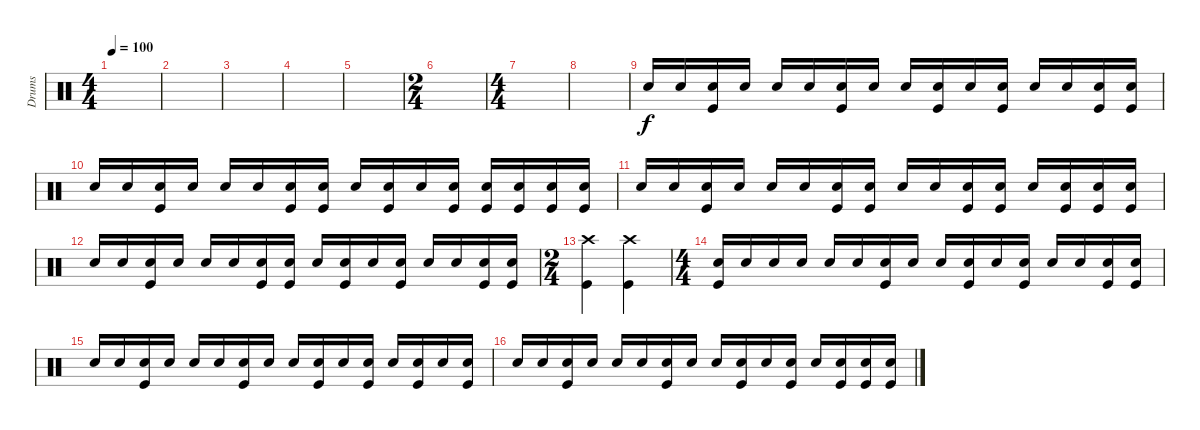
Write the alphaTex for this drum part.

\track ("Drums" "Drums") {instrument percussion}
\staff {score}
\articulation defaults
\ts (4 4)
\tempo 100
\clef neutral
\ks c
|
|
|
|
|
\ts (2 4)
|
\ts (4 4)
|
|
"Snare (hit) 2".16 "Snare (hit) 2".16 ("Snare (hit) 2" "Kick (hit)").16 "Snare (hit) 2".16 "Snare (hit) 2".16 "Snare (hit) 2".16 ("Snare (hit) 2" "Kick (hit)").16 "Snare (hit) 2".16 "Snare (hit) 2".16 ("Snare (hit) 2" "Kick (hit)").16 "Snare (hit) 2".16 ("Snare (hit) 2" "Kick (hit)").16 "Snare (hit) 2".16 "Snare (hit) 2".16 ("Snare (hit) 2" "Kick (hit)").16 ("Snare (hit) 2" "Kick (hit)").16 |
"Snare (hit) 2".16 "Snare (hit) 2".16 ("Snare (hit) 2" "Kick (hit)").16 "Snare (hit) 2".16 "Snare (hit) 2".16 "Snare (hit) 2".16 ("Snare (hit) 2" "Kick (hit)").16 ("Snare (hit) 2" "Kick (hit)").16 "Snare (hit) 2".16 ("Snare (hit) 2" "Kick (hit)").16 "Snare (hit) 2".16 ("Snare (hit) 2" "Kick (hit)").16 ("Snare (hit) 2" "Kick (hit)").16 ("Snare (hit) 2" "Kick (hit)").16 ("Snare (hit) 2" "Kick (hit)").16 ("Snare (hit) 2" "Kick (hit)").16 |
"Snare (hit) 2".16 "Snare (hit) 2".16 ("Snare (hit) 2" "Kick (hit)").16 "Snare (hit) 2".16 "Snare (hit) 2".16 "Snare (hit) 2".16 ("Snare (hit) 2" "Kick (hit)").16 ("Snare (hit) 2" "Kick (hit)").16 "Snare (hit) 2".16 "Snare (hit) 2".16 ("Snare (hit) 2" "Kick (hit)").16 ("Snare (hit) 2" "Kick (hit)").16 "Snare (hit) 2".16 ("Snare (hit) 2" "Kick (hit)").16 ("Snare (hit) 2" "Kick (hit)").16 ("Snare (hit) 2" "Kick (hit)").16 |
"Snare (hit) 2".16 "Snare (hit) 2".16 ("Snare (hit) 2" "Kick (hit)").16 "Snare (hit) 2".16 "Snare (hit) 2".16 "Snare (hit) 2".16 ("Snare (hit) 2" "Kick (hit)").16 ("Snare (hit) 2" "Kick (hit)").16 "Snare (hit) 2".16 ("Snare (hit) 2" "Kick (hit)").16 "Snare (hit) 2".16 ("Snare (hit) 2" "Kick (hit)").16 "Snare (hit) 2".16 "Snare (hit) 2".16 ("Snare (hit) 2" "Kick (hit)").16 ("Snare (hit) 2" "Kick (hit)").16 |
\ts (2 4)
("Crash high (hit)" "Kick (hit)").4 ("Crash high (hit)" "Kick (hit)").4 |
\ts (4 4)
("Snare (hit) 2" "Kick (hit)").16 "Snare (hit) 2".16 "Snare (hit) 2".16 "Snare (hit) 2".16 "Snare (hit) 2".16 "Snare (hit) 2".16 ("Snare (hit) 2" "Kick (hit)").16 "Snare (hit) 2".16 "Snare (hit) 2".16 ("Snare (hit) 2" "Kick (hit)").16 "Snare (hit) 2".16 ("Snare (hit) 2" "Kick (hit)").16 "Snare (hit) 2".16 "Snare (hit) 2".16 ("Snare (hit) 2" "Kick (hit)").16 ("Snare (hit) 2" "Kick (hit)").16 |
"Snare (hit) 2".16 "Snare (hit) 2".16 ("Snare (hit) 2" "Kick (hit)").16 "Snare (hit) 2".16 "Snare (hit) 2".16 "Snare (hit) 2".16 ("Snare (hit) 2" "Kick (hit)").16 "Snare (hit) 2".16 "Snare (hit) 2".16 ("Snare (hit) 2" "Kick (hit)").16 "Snare (hit) 2".16 ("Snare (hit) 2" "Kick (hit)").16 "Snare (hit) 2".16 ("Snare (hit) 2" "Kick (hit)").16 "Snare (hit) 2".16 ("Snare (hit) 2" "Kick (hit)").16 |
"Snare (hit) 2".16 "Snare (hit) 2".16 ("Snare (hit) 2" "Kick (hit)").16 "Snare (hit) 2".16 "Snare (hit) 2".16 "Snare (hit) 2".16 ("Snare (hit) 2" "Kick (hit)").16 "Snare (hit) 2".16 "Snare (hit) 2".16 ("Snare (hit) 2" "Kick (hit)").16 "Snare (hit) 2".16 ("Snare (hit) 2" "Kick (hit)").16 "Snare (hit) 2".16 ("Snare (hit) 2" "Kick (hit)").16 ("Snare (hit) 2" "Kick (hit)").16 ("Snare (hit) 2" "Kick (hit)").16
